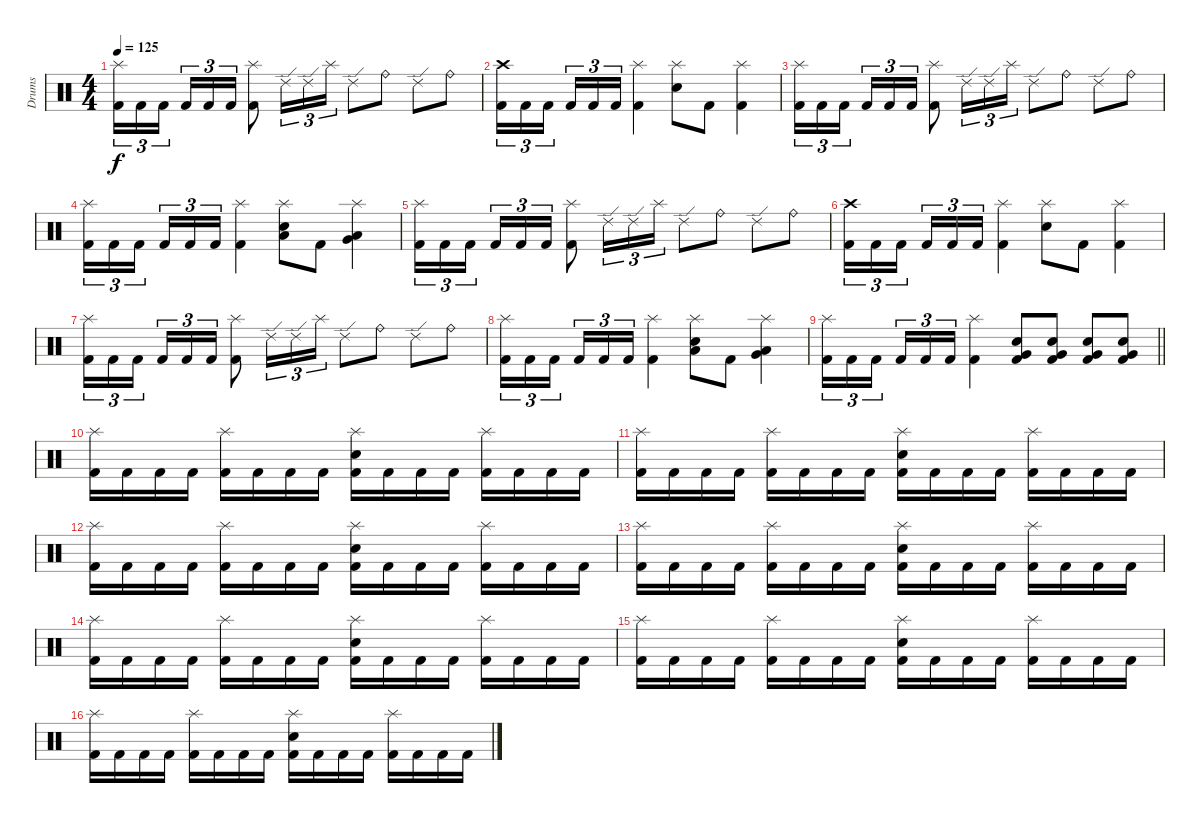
\track ("Drums" "Drums") {instrument percussion}
\staff {score}
\articulation defaults
\ts (4 4)
\tempo 125
\clef neutral
\ks c
("Splash (hit)" "Kick (hit) 2").16{tu (3 2) dy f} "Kick (hit) 2".16{tu (3 2)} "Kick (hit) 2".16{tu (3 2) beam splitsecondary} "Kick (hit) 2".16{tu (3 2)} "Kick (hit) 2".16{tu (3 2)} "Kick (hit) 2".16{tu (3 2)} ("Splash (hit)" "Kick (hit) 2").8 "Ride (edge) 2".16{tu (3 2)} "Ride (edge) 2".16{tu (3 2)} "Splash (hit)".16{tu (3 2)} "Ride (edge) 2".8 "Ride (bell)".8 "Ride (edge) 2".8 "Ride (bell)".8 |
("Crash high (hit)" "Kick (hit) 2").16{tu (3 2)} "Kick (hit) 2".16{tu (3 2)} "Kick (hit) 2".16{tu (3 2) beam splitsecondary} "Kick (hit) 2".16{tu (3 2)} "Kick (hit) 2".16{tu (3 2)} "Kick (hit) 2".16{tu (3 2)} ("Splash (hit)" "Kick (hit) 2").4 ("Splash (hit)" "Electric Snare (hit)").8 "Kick (hit) 2".8 ("Splash (hit)" "Kick (hit) 2").4 |
("Splash (hit)" "Kick (hit) 2").16{tu (3 2)} "Kick (hit) 2".16{tu (3 2)} "Kick (hit) 2".16{tu (3 2) beam splitsecondary} "Kick (hit) 2".16{tu (3 2)} "Kick (hit) 2".16{tu (3 2)} "Kick (hit) 2".16{tu (3 2)} ("Splash (hit)" "Kick (hit) 2").8 "Ride (edge) 2".16{tu (3 2)} "Ride (edge) 2".16{tu (3 2)} "Splash (hit)".16{tu (3 2)} "Ride (edge) 2".8 "Ride (bell)".8 "Ride (edge) 2".8 "Ride (bell)".8 |
("Splash (hit)" "Kick (hit) 2").16{tu (3 2)} "Kick (hit) 2".16{tu (3 2)} "Kick (hit) 2".16{tu (3 2) beam splitsecondary} "Kick (hit) 2".16{tu (3 2)} "Kick (hit) 2".16{tu (3 2)} "Kick (hit) 2".16{tu (3 2)} ("Splash (hit)" "Kick (hit) 2").4 ("Splash (hit)" "Electric Snare (hit)" "Low Tom (hit)").8 "Kick (hit) 2".8 ("Splash (hit)" "Low Tom (hit)" "Very Low Tom (hit)").4 |
("Splash (hit)" "Kick (hit) 2").16{tu (3 2)} "Kick (hit) 2".16{tu (3 2)} "Kick (hit) 2".16{tu (3 2) beam splitsecondary} "Kick (hit) 2".16{tu (3 2)} "Kick (hit) 2".16{tu (3 2)} "Kick (hit) 2".16{tu (3 2)} ("Splash (hit)" "Kick (hit) 2").8 "Ride (edge) 2".16{tu (3 2)} "Ride (edge) 2".16{tu (3 2)} "Splash (hit)".16{tu (3 2)} "Ride (edge) 2".8 "Ride (bell)".8 "Ride (edge) 2".8 "Ride (bell)".8 |
("Crash high (hit)" "Kick (hit) 2").16{tu (3 2)} "Kick (hit) 2".16{tu (3 2)} "Kick (hit) 2".16{tu (3 2) beam splitsecondary} "Kick (hit) 2".16{tu (3 2)} "Kick (hit) 2".16{tu (3 2)} "Kick (hit) 2".16{tu (3 2)} ("Splash (hit)" "Kick (hit) 2").4 ("Splash (hit)" "Electric Snare (hit)").8 "Kick (hit) 2".8 ("Splash (hit)" "Kick (hit) 2").4 |
("Splash (hit)" "Kick (hit) 2").16{tu (3 2)} "Kick (hit) 2".16{tu (3 2)} "Kick (hit) 2".16{tu (3 2) beam splitsecondary} "Kick (hit) 2".16{tu (3 2)} "Kick (hit) 2".16{tu (3 2)} "Kick (hit) 2".16{tu (3 2)} ("Splash (hit)" "Kick (hit) 2").8 "Ride (edge) 2".16{tu (3 2)} "Ride (edge) 2".16{tu (3 2)} "Splash (hit)".16{tu (3 2)} "Ride (edge) 2".8 "Ride (bell)".8 "Ride (edge) 2".8 "Ride (bell)".8 |
("Splash (hit)" "Kick (hit) 2").16{tu (3 2)} "Kick (hit) 2".16{tu (3 2)} "Kick (hit) 2".16{tu (3 2) beam splitsecondary} "Kick (hit) 2".16{tu (3 2)} "Kick (hit) 2".16{tu (3 2)} "Kick (hit) 2".16{tu (3 2)} ("Splash (hit)" "Kick (hit) 2").4 ("Splash (hit)" "Electric Snare (hit)" "Low Tom (hit)").8 "Kick (hit) 2".8 ("Splash (hit)" "Low Tom (hit)" "Very Low Tom (hit)").4 |
\barLineRight lightlight
("Splash (hit)" "Kick (hit) 2").16{tu (3 2)} "Kick (hit) 2".16{tu (3 2)} "Kick (hit) 2".16{tu (3 2) beam splitsecondary} "Kick (hit) 2".16{tu (3 2)} "Kick (hit) 2".16{tu (3 2)} "Kick (hit) 2".16{tu (3 2)} ("Splash (hit)" "Kick (hit) 2").4 ("Electric Snare (hit)" "Very Low Tom (hit)" "Kick (hit) 2").8 ("Electric Snare (hit)" "Very Low Tom (hit)" "Kick (hit) 2").8 ("Electric Snare (hit)" "Very Low Tom (hit)" "Kick (hit) 2").8 ("Electric Snare (hit)" "Very Low Tom (hit)" "Kick (hit) 2").8 |
("Splash (hit)" "Kick (hit) 2").16 "Kick (hit) 2".16 "Kick (hit) 2".16 "Kick (hit) 2".16 ("Splash (hit)" "Kick (hit) 2").16 "Kick (hit) 2".16 "Kick (hit) 2".16 "Kick (hit) 2".16 ("Splash (hit)" "Electric Snare (hit)" "Kick (hit) 2").16 "Kick (hit) 2".16 "Kick (hit) 2".16 "Kick (hit) 2".16 ("Splash (hit)" "Kick (hit) 2").16 "Kick (hit) 2".16 "Kick (hit) 2".16 "Kick (hit) 2".16 |
("Splash (hit)" "Kick (hit) 2").16 "Kick (hit) 2".16 "Kick (hit) 2".16 "Kick (hit) 2".16 ("Splash (hit)" "Kick (hit) 2").16 "Kick (hit) 2".16 "Kick (hit) 2".16 "Kick (hit) 2".16 ("Splash (hit)" "Electric Snare (hit)" "Kick (hit) 2").16 "Kick (hit) 2".16 "Kick (hit) 2".16 "Kick (hit) 2".16 ("Splash (hit)" "Kick (hit) 2").16 "Kick (hit) 2".16 "Kick (hit) 2".16 "Kick (hit) 2".16 |
("Splash (hit)" "Kick (hit) 2").16 "Kick (hit) 2".16 "Kick (hit) 2".16 "Kick (hit) 2".16 ("Splash (hit)" "Kick (hit) 2").16 "Kick (hit) 2".16 "Kick (hit) 2".16 "Kick (hit) 2".16 ("Splash (hit)" "Electric Snare (hit)" "Kick (hit) 2").16 "Kick (hit) 2".16 "Kick (hit) 2".16 "Kick (hit) 2".16 ("Splash (hit)" "Kick (hit) 2").16 "Kick (hit) 2".16 "Kick (hit) 2".16 "Kick (hit) 2".16 |
("Splash (hit)" "Kick (hit) 2").16 "Kick (hit) 2".16 "Kick (hit) 2".16 "Kick (hit) 2".16 ("Splash (hit)" "Kick (hit) 2").16 "Kick (hit) 2".16 "Kick (hit) 2".16 "Kick (hit) 2".16 ("Splash (hit)" "Electric Snare (hit)" "Kick (hit) 2").16 "Kick (hit) 2".16 "Kick (hit) 2".16 "Kick (hit) 2".16 ("Splash (hit)" "Kick (hit) 2").16 "Kick (hit) 2".16 "Kick (hit) 2".16 "Kick (hit) 2".16 |
("Splash (hit)" "Kick (hit) 2").16 "Kick (hit) 2".16 "Kick (hit) 2".16 "Kick (hit) 2".16 ("Splash (hit)" "Kick (hit) 2").16 "Kick (hit) 2".16 "Kick (hit) 2".16 "Kick (hit) 2".16 ("Splash (hit)" "Electric Snare (hit)" "Kick (hit) 2").16 "Kick (hit) 2".16 "Kick (hit) 2".16 "Kick (hit) 2".16 ("Splash (hit)" "Kick (hit) 2").16 "Kick (hit) 2".16 "Kick (hit) 2".16 "Kick (hit) 2".16 |
("Splash (hit)" "Kick (hit) 2").16 "Kick (hit) 2".16 "Kick (hit) 2".16 "Kick (hit) 2".16 ("Splash (hit)" "Kick (hit) 2").16 "Kick (hit) 2".16 "Kick (hit) 2".16 "Kick (hit) 2".16 ("Splash (hit)" "Electric Snare (hit)" "Kick (hit) 2").16 "Kick (hit) 2".16 "Kick (hit) 2".16 "Kick (hit) 2".16 ("Splash (hit)" "Kick (hit) 2").16 "Kick (hit) 2".16 "Kick (hit) 2".16 "Kick (hit) 2".16 |
("Splash (hit)" "Kick (hit) 2").16 "Kick (hit) 2".16 "Kick (hit) 2".16 "Kick (hit) 2".16 ("Splash (hit)" "Kick (hit) 2").16 "Kick (hit) 2".16 "Kick (hit) 2".16 "Kick (hit) 2".16 ("Splash (hit)" "Electric Snare (hit)" "Kick (hit) 2").16 "Kick (hit) 2".16 "Kick (hit) 2".16 "Kick (hit) 2".16 ("Splash (hit)" "Kick (hit) 2").16 "Kick (hit) 2".16 "Kick (hit) 2".16 "Kick (hit) 2".16
